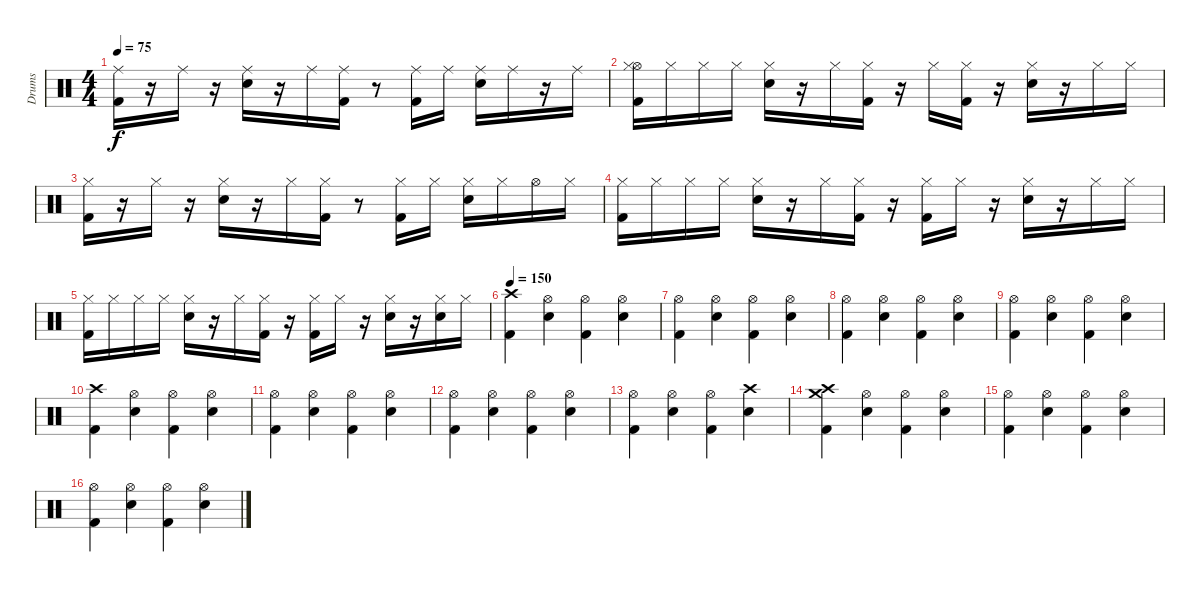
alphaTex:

\track ("Drums" "Drums") {instrument percussion}
\staff {score}
\articulation defaults
\ts (4 4)
\tempo 75
\clef neutral
\ks c
("Kick (hit) 2" "Ride (middle)").16{dy f} r.16 "Ride (middle)".16 r.16 ("Ride (middle)" "Snare (hit) 2").16 r.16 "Ride (middle)".16 ("Ride (middle)" "Kick (hit) 2").16 r.8 ("Ride (middle)" "Kick (hit) 2").16 "Ride (middle)".16 ("Snare (hit) 2" "Ride (middle)").16 "Ride (middle)".16 r.16 "Ride (middle)".16 |
("Kick (hit) 2" "Hi-Hat (open)" "Hi-Hat (closed)").16 "Hi-Hat (closed)".16 "Hi-Hat (closed)".16 "Hi-Hat (closed)".16 ("Hi-Hat (closed)" "Snare (hit) 2").16 r.16 "Hi-Hat (closed)".16 ("Kick (hit) 2" "Hi-Hat (closed)").16 r.16 "Hi-Hat (closed)".16 ("Kick (hit) 2" "Hi-Hat (closed)").16 r.16 ("Hi-Hat (closed)" "Snare (hit) 2").16 r.16 "Hi-Hat (closed)".16 "Hi-Hat (closed)".16 |
("Kick (hit) 2" "Hi-Hat (closed)").16 r.16 "Hi-Hat (closed)".16 r.16 ("Snare (hit) 2" "Hi-Hat (closed)").16 r.16 "Hi-Hat (closed)".16 ("Hi-Hat (closed)" "Kick (hit) 2").16 r.8 ("Hi-Hat (closed)" "Kick (hit) 2").16 "Hi-Hat (closed)".16 ("Snare (hit) 2" "Hi-Hat (closed)").16 "Hi-Hat (closed)".16 "Hi-Hat (open)".16 "Hi-Hat (closed)".16 |
("Hi-Hat (closed)" "Kick (hit) 2").16 "Hi-Hat (closed)".16 "Hi-Hat (closed)".16 "Hi-Hat (closed)".16 ("Snare (hit) 2" "Hi-Hat (closed)").16 r.16 "Hi-Hat (closed)".16 ("Hi-Hat (closed)" "Kick (hit) 2").16 r.16 ("Hi-Hat (closed)" "Kick (hit) 2").16 "Hi-Hat (closed)".16 r.16 ("Snare (hit) 2" "Hi-Hat (closed)").16 r.16 "Hi-Hat (closed)".16 "Hi-Hat (closed)".16 |
("Hi-Hat (closed)" "Kick (hit) 2").16 "Hi-Hat (closed)".16 "Hi-Hat (closed)".16 "Hi-Hat (closed)".16 ("Hi-Hat (closed)" "Snare (hit) 2").16 r.16 "Hi-Hat (closed)".16 ("Kick (hit) 2" "Hi-Hat (closed)").16 r.16 ("Hi-Hat (closed)" "Kick (hit) 2").16 "Hi-Hat (closed)".16 r.16 ("Snare (hit) 2" "Hi-Hat (closed)").16 r.16 ("Snare (hit) 2" "Hi-Hat (closed)").16 "Hi-Hat (closed)".16 |
\tempo 150
("Kick (hit) 2" "Crash high (hit)").4 ("Snare (hit) 2" "Hi-Hat (open)").4 ("Kick (hit) 2" "Hi-Hat (open)").4 ("Hi-Hat (open)" "Snare (hit) 2").4 |
("Kick (hit) 2" "Hi-Hat (open)").4 ("Snare (hit) 2" "Hi-Hat (open)").4 ("Hi-Hat (open)" "Kick (hit) 2").4 ("Snare (hit) 2" "Hi-Hat (open)").4 |
("Kick (hit) 2" "Hi-Hat (open)").4 ("Snare (hit) 2" "Hi-Hat (open)").4 ("Kick (hit) 2" "Hi-Hat (open)").4 ("Snare (hit) 2" "Hi-Hat (open)").4 |
("Kick (hit) 2" "Hi-Hat (open)").4 ("Snare (hit) 2" "Hi-Hat (open)").4 ("Kick (hit) 2" "Hi-Hat (open)").4 ("Hi-Hat (open)" "Snare (hit) 2").4 |
("Kick (hit) 2" "Crash high (hit)").4 ("Hi-Hat (open)" "Snare (hit) 2").4 ("Kick (hit) 2" "Hi-Hat (open)").4 ("Hi-Hat (open)" "Snare (hit) 2").4 |
("Kick (hit) 2" "Hi-Hat (open)").4 ("Hi-Hat (open)" "Snare (hit) 2").4 ("Hi-Hat (open)" "Kick (hit) 2").4 ("Snare (hit) 2" "Hi-Hat (open)").4 |
("Hi-Hat (open)" "Kick (hit) 2").4 ("Snare (hit) 2" "Hi-Hat (open)").4 ("Kick (hit) 2" "Hi-Hat (open)").4 ("Snare (hit) 2" "Hi-Hat (open)").4 |
("Hi-Hat (open)" "Kick (hit) 2").4 ("Snare (hit) 2" "Hi-Hat (open)").4 ("Hi-Hat (open)" "Kick (hit) 2").4 ("Crash high (hit)" "Snare (hit) 2").4 |
("Crash high (hit)" "Kick (hit) 2" "Crash medium (hit)").4 ("Snare (hit) 2" "Hi-Hat (open)").4 ("Hi-Hat (open)" "Kick (hit) 2").4 ("Hi-Hat (open)" "Snare (hit) 2").4 |
("Hi-Hat (open)" "Kick (hit) 2").4 ("Hi-Hat (open)" "Snare (hit) 2").4 ("Kick (hit) 2" "Hi-Hat (open)").4 ("Hi-Hat (open)" "Snare (hit) 2").4 |
("Kick (hit) 2" "Hi-Hat (open)").4 ("Hi-Hat (open)" "Snare (hit) 2").4 ("Hi-Hat (open)" "Kick (hit) 2").4 ("Snare (hit) 2" "Hi-Hat (open)").4
